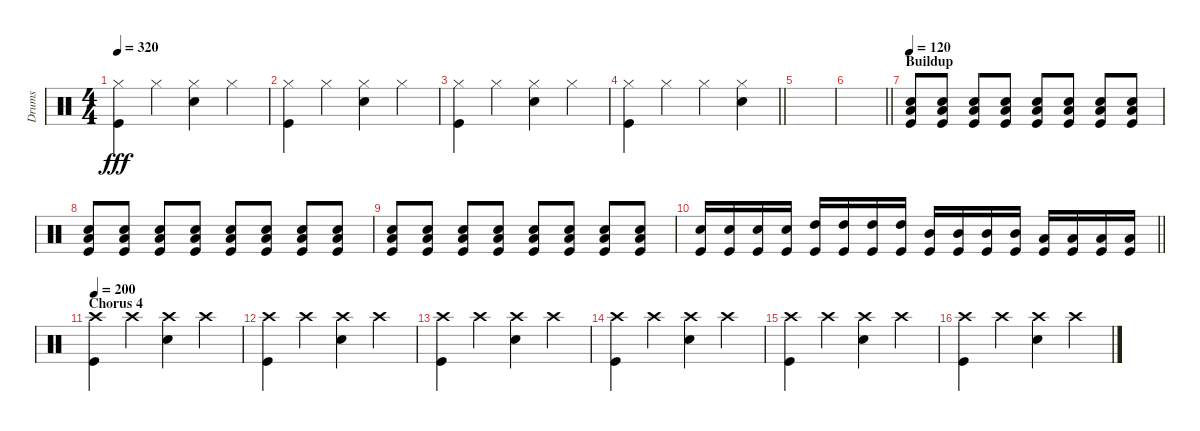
\track ("Drums" "Drums") {instrument percussion}
\staff {score}
\articulation defaults
\ts (4 4)
\tempo 320
\clef neutral
\ks c
("Hi-Hat (closed)" "Kick (hit)").4{dy fff} "Hi-Hat (closed)".4 ("Hi-Hat (closed)" "Snare (hit) 2").4 "Hi-Hat (closed)".4 |
("Hi-Hat (closed)" "Kick (hit)").4 "Hi-Hat (closed)".4 ("Hi-Hat (closed)" "Snare (hit) 2").4 "Hi-Hat (closed)".4 |
("Hi-Hat (closed)" "Kick (hit)").4 "Hi-Hat (closed)".4 ("Hi-Hat (closed)" "Snare (hit) 2").4 "Hi-Hat (closed)".4 |
\barLineRight lightlight
("Hi-Hat (closed)" "Kick (hit)").4 "Hi-Hat (closed)".4 "Hi-Hat (closed)".4 ("Hi-Hat (closed)" "Snare (hit) 2").4 |
|
\barLineRight lightlight
|
\section ("" "Buildup")
\tempo 120
("Low Floor Tom (hit)" "Snare (hit) 2" "Kick (hit)").8 ("Low Floor Tom (hit)" "Snare (hit) 2" "Kick (hit)").8 ("Low Floor Tom (hit)" "Snare (hit) 2" "Kick (hit)").8 ("Low Floor Tom (hit)" "Snare (hit) 2" "Kick (hit)").8 ("Low Floor Tom (hit)" "Snare (hit) 2" "Kick (hit)").8 ("Low Floor Tom (hit)" "Snare (hit) 2" "Kick (hit)").8 ("Low Floor Tom (hit)" "Snare (hit) 2" "Kick (hit)").8 ("Low Floor Tom (hit)" "Snare (hit) 2" "Kick (hit)").8 |
("Low Floor Tom (hit)" "Snare (hit) 2" "Kick (hit)").8 ("Low Floor Tom (hit)" "Snare (hit) 2" "Kick (hit)").8 ("Low Floor Tom (hit)" "Snare (hit) 2" "Kick (hit)").8 ("Low Floor Tom (hit)" "Snare (hit) 2" "Kick (hit)").8 ("Low Floor Tom (hit)" "Snare (hit) 2" "Kick (hit)").8 ("Low Floor Tom (hit)" "Snare (hit) 2" "Kick (hit)").8 ("Low Floor Tom (hit)" "Snare (hit) 2" "Kick (hit)").8 ("Low Floor Tom (hit)" "Snare (hit) 2" "Kick (hit)").8 |
("Low Floor Tom (hit)" "Snare (hit) 2" "Kick (hit)").8 ("Low Floor Tom (hit)" "Snare (hit) 2" "Kick (hit)").8 ("Low Floor Tom (hit)" "Snare (hit) 2" "Kick (hit)").8 ("Low Floor Tom (hit)" "Snare (hit) 2" "Kick (hit)").8 ("Low Floor Tom (hit)" "Snare (hit) 2" "Kick (hit)").8 ("Low Floor Tom (hit)" "Snare (hit) 2" "Kick (hit)").8 ("Low Floor Tom (hit)" "Snare (hit) 2" "Kick (hit)").8 ("Low Floor Tom (hit)" "Snare (hit) 2" "Kick (hit)").8 |
\barLineRight lightlight
("Kick (hit)" "Snare (hit) 2").16 ("Kick (hit)" "Snare (hit) 2").16 ("Kick (hit)" "Snare (hit) 2").16 ("Kick (hit)" "Snare (hit) 2").16 ("Kick (hit)" "High Tom (hit)").16 ("Kick (hit)" "High Tom (hit)").16 ("Kick (hit)" "High Tom (hit)").16 ("Kick (hit)" "High Tom (hit)").16 ("Kick (hit)" "Mid Tom (hit)").16 ("Kick (hit)" "Mid Tom (hit)").16 ("Kick (hit)" "Mid Tom (hit)").16 ("Kick (hit)" "Mid Tom (hit)").16 ("Kick (hit)" "Low Floor Tom (hit)").16 ("Kick (hit)" "Low Floor Tom (hit)").16 ("Kick (hit)" "Low Floor Tom (hit)").16 ("Kick (hit)" "Low Floor Tom (hit)").16 |
\section ("" "Chorus 4")
\tempo 200
("Crash high (hit)" "Kick (hit)").4 "Crash high (hit)".4 ("Crash high (hit)" "Snare (hit) 2").4 "Crash high (hit)".4 |
("Crash high (hit)" "Kick (hit)").4 "Crash high (hit)".4 ("Crash high (hit)" "Snare (hit) 2").4 "Crash high (hit)".4 |
("Crash high (hit)" "Kick (hit)").4 "Crash high (hit)".4 ("Crash high (hit)" "Snare (hit) 2").4 "Crash high (hit)".4 |
("Crash high (hit)" "Kick (hit)").4 "Crash high (hit)".4 ("Crash high (hit)" "Snare (hit) 2").4 "Crash high (hit)".4 |
("Crash high (hit)" "Kick (hit)").4 "Crash high (hit)".4 ("Crash high (hit)" "Snare (hit) 2").4 "Crash high (hit)".4 |
("Crash high (hit)" "Kick (hit)").4 "Crash high (hit)".4 ("Crash high (hit)" "Snare (hit) 2").4 "Crash high (hit)".4
